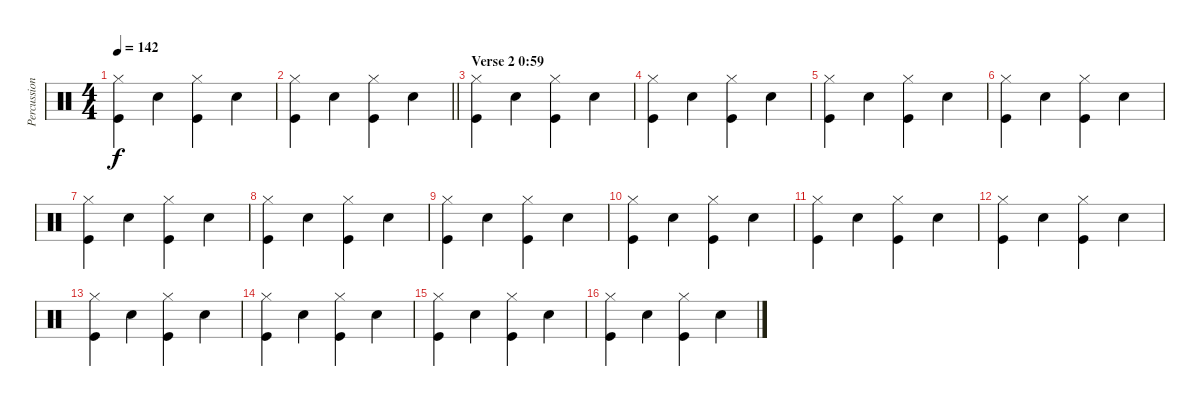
\track ("Percussion" "Percussion") {instrument percussion}
\staff {score}
\articulation defaults
\ts (4 4)
\tempo 142
\clef neutral
\ks c
("Hi-Hat (closed)" "Kick (hit)").4{dy f} "Snare (hit) 2".4 ("Hi-Hat (closed)" "Kick (hit)").4 "Snare (hit) 2".4 |
\barLineRight lightlight
("Hi-Hat (closed)" "Kick (hit)").4 "Snare (hit) 2".4 ("Hi-Hat (closed)" "Kick (hit)").4 "Snare (hit) 2".4 |
\section ("" "Verse 2 0:59")
("Hi-Hat (closed)" "Kick (hit)").4 "Snare (hit) 2".4 ("Hi-Hat (closed)" "Kick (hit)").4 "Snare (hit) 2".4 |
("Hi-Hat (closed)" "Kick (hit)").4 "Snare (hit) 2".4 ("Hi-Hat (closed)" "Kick (hit)").4 "Snare (hit) 2".4 |
("Hi-Hat (closed)" "Kick (hit)").4 "Snare (hit) 2".4 ("Hi-Hat (closed)" "Kick (hit)").4 "Snare (hit) 2".4 |
("Hi-Hat (closed)" "Kick (hit)").4 "Snare (hit) 2".4 ("Hi-Hat (closed)" "Kick (hit)").4 "Snare (hit) 2".4 |
("Hi-Hat (closed)" "Kick (hit)").4 "Snare (hit) 2".4 ("Hi-Hat (closed)" "Kick (hit)").4 "Snare (hit) 2".4 |
("Hi-Hat (closed)" "Kick (hit)").4 "Snare (hit) 2".4 ("Hi-Hat (closed)" "Kick (hit)").4 "Snare (hit) 2".4 |
("Hi-Hat (closed)" "Kick (hit)").4 "Snare (hit) 2".4 ("Hi-Hat (closed)" "Kick (hit)").4 "Snare (hit) 2".4 |
("Hi-Hat (closed)" "Kick (hit)").4 "Snare (hit) 2".4 ("Hi-Hat (closed)" "Kick (hit)").4 "Snare (hit) 2".4 |
("Hi-Hat (closed)" "Kick (hit)").4 "Snare (hit) 2".4 ("Hi-Hat (closed)" "Kick (hit)").4 "Snare (hit) 2".4 |
("Hi-Hat (closed)" "Kick (hit)").4 "Snare (hit) 2".4 ("Hi-Hat (closed)" "Kick (hit)").4 "Snare (hit) 2".4 |
("Hi-Hat (closed)" "Kick (hit)").4 "Snare (hit) 2".4 ("Hi-Hat (closed)" "Kick (hit)").4 "Snare (hit) 2".4 |
("Hi-Hat (closed)" "Kick (hit)").4 "Snare (hit) 2".4 ("Hi-Hat (closed)" "Kick (hit)").4 "Snare (hit) 2".4 |
("Hi-Hat (closed)" "Kick (hit)").4 "Snare (hit) 2".4 ("Hi-Hat (closed)" "Kick (hit)").4 "Snare (hit) 2".4 |
("Hi-Hat (closed)" "Kick (hit)").4 "Snare (hit) 2".4 ("Hi-Hat (closed)" "Kick (hit)").4 "Snare (hit) 2".4
